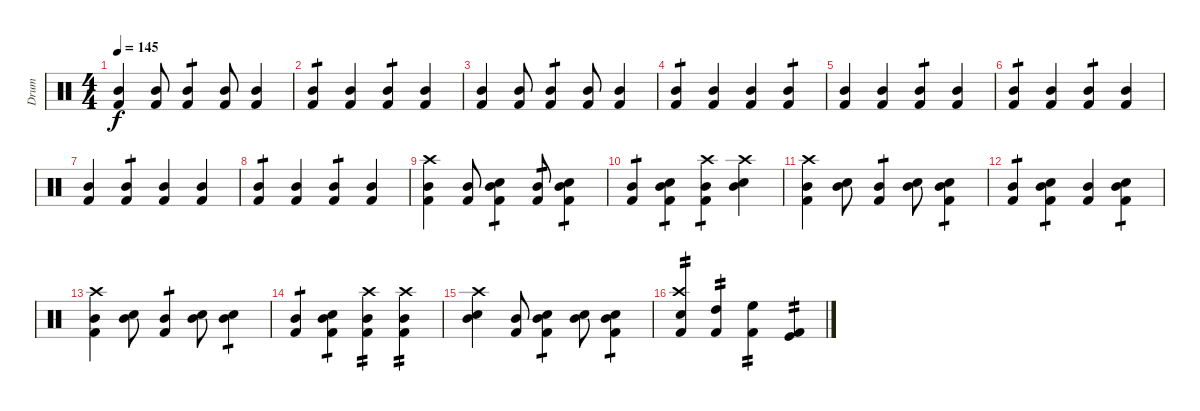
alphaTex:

\track ("Drum" "Drum") {instrument percussion}
\staff {score}
\articulation defaults
\ts (4 4)
\tempo 145
\clef neutral
\ks c
("Mid Tom (hit)" "Kick (hit) 2").4{dy f} ("Mid Tom (hit)" "Kick (hit) 2").8 ("Mid Tom (hit)" "Kick (hit) 2").4{tp 1} ("Mid Tom (hit)" "Kick (hit) 2").8 ("Mid Tom (hit)" "Kick (hit) 2").4 |
("Mid Tom (hit)" "Kick (hit) 2").4{tp 1} ("Mid Tom (hit)" "Kick (hit) 2").4 ("Mid Tom (hit)" "Kick (hit) 2").4{tp 1} ("Mid Tom (hit)" "Kick (hit) 2").4 |
("Mid Tom (hit)" "Kick (hit) 2").4 ("Mid Tom (hit)" "Kick (hit) 2").8 ("Mid Tom (hit)" "Kick (hit) 2").4{tp 1} ("Mid Tom (hit)" "Kick (hit) 2").8 ("Mid Tom (hit)" "Kick (hit) 2").4 |
("Mid Tom (hit)" "Kick (hit) 2").4{tp 1} ("Mid Tom (hit)" "Kick (hit) 2").4 ("Mid Tom (hit)" "Kick (hit) 2").4 ("Mid Tom (hit)" "Kick (hit) 2").4{tp 1} |
("Mid Tom (hit)" "Kick (hit) 2").4 ("Mid Tom (hit)" "Kick (hit) 2").4 ("Mid Tom (hit)" "Kick (hit) 2").4{tp 1} ("Mid Tom (hit)" "Kick (hit) 2").4 |
("Mid Tom (hit)" "Kick (hit) 2").4{tp 1} ("Mid Tom (hit)" "Kick (hit) 2").4 ("Mid Tom (hit)" "Kick (hit) 2").4{tp 1} ("Mid Tom (hit)" "Kick (hit) 2").4 |
("Mid Tom (hit)" "Kick (hit) 2").4 ("Mid Tom (hit)" "Kick (hit) 2").4{tp 1} ("Mid Tom (hit)" "Kick (hit) 2").4 ("Mid Tom (hit)" "Kick (hit) 2").4 |
("Mid Tom (hit)" "Kick (hit) 2").4{tp 1} ("Mid Tom (hit)" "Kick (hit) 2").4 ("Mid Tom (hit)" "Kick (hit) 2").4{tp 1} ("Mid Tom (hit)" "Kick (hit) 2").4 |
("Mid Tom (hit)" "Kick (hit) 2" "Crash high (hit)").4 ("Mid Tom (hit)" "Kick (hit) 2").8 ("Mid Tom (hit)" "Kick (hit) 2" "Snare (hit) 2").4{tp 1} ("Mid Tom (hit)" "Kick (hit) 2").8{tp 1} ("Mid Tom (hit)" "Snare (hit) 2" "Kick (hit) 2").4{tp 1} |
("Mid Tom (hit)" "Kick (hit) 2").4{tp 1} ("Mid Tom (hit)" "Kick (hit) 2" "Snare (hit) 2").4{tp 1} ("Mid Tom (hit)" "Kick (hit) 2" "Crash high (hit)").4{tp 1} ("Mid Tom (hit)" "Snare (hit) 2" "Crash high (hit)").4 |
("Mid Tom (hit)" "Kick (hit) 2" "Crash high (hit)").4 ("Mid Tom (hit)" "Snare (hit) 2").8 ("Mid Tom (hit)" "Kick (hit) 2").4{tp 1} ("Mid Tom (hit)" "Snare (hit) 2").8 ("Mid Tom (hit)" "Snare (hit) 2" "Kick (hit) 2").4{tp 1} |
("Mid Tom (hit)" "Kick (hit) 2").4{tp 1} ("Mid Tom (hit)" "Kick (hit) 2" "Snare (hit) 2").4{tp 1} ("Mid Tom (hit)" "Kick (hit) 2").4 ("Mid Tom (hit)" "Kick (hit) 2" "Snare (hit) 2").4{tp 1} |
("Mid Tom (hit)" "Kick (hit) 2" "Crash high (hit)").4 ("Mid Tom (hit)" "Snare (hit) 2").8 ("Mid Tom (hit)" "Kick (hit) 2").4{tp 1} ("Mid Tom (hit)" "Snare (hit) 2").8 ("Mid Tom (hit)" "Snare (hit) 2").4{tp 1} |
("Mid Tom (hit)" "Kick (hit) 2").4{tp 1} ("Mid Tom (hit)" "Kick (hit) 2" "Snare (hit) 2").4{tp 1} ("Mid Tom (hit)" "Kick (hit) 2" "Crash high (hit)").4{tp 2} ("Mid Tom (hit)" "Kick (hit) 2" "Crash high (hit)").4{tp 2} |
("Mid Tom (hit)" "Snare (hit) 2" "Crash high (hit)").4 ("Mid Tom (hit)" "Kick (hit) 2").8 ("Mid Tom (hit)" "Kick (hit) 2" "Snare (hit) 2").4{tp 1} ("Mid Tom (hit)" "Snare (hit) 2").8 ("Mid Tom (hit)" "Snare (hit) 2" "Kick (hit) 2").4{tp 1} |
("Crash high (hit)" "Kick (hit) 2" "Snare (hit) 2").4{tp 2} ("High Tom (hit)" "Kick (hit) 2").4{tp 2} ("High Floor Tom (hit)" "Kick (hit) 2").4{tp 2} ("Kick (hit)" "Kick (hit) 2").4{tp 2}
